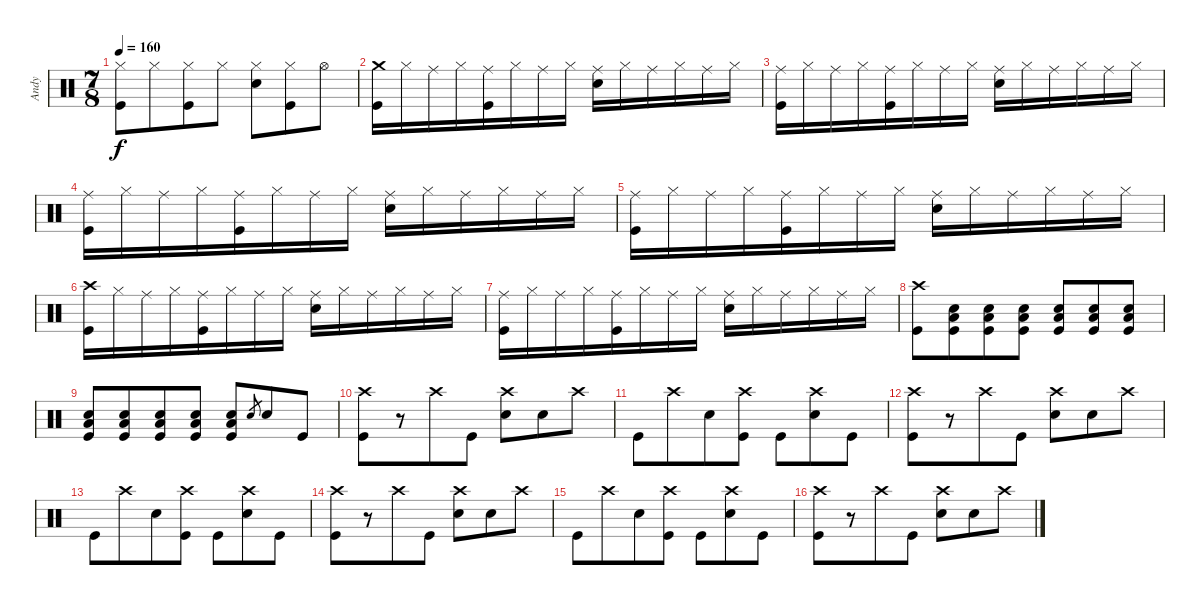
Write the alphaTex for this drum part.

\track ("Andy" "Andy") {instrument percussion}
\staff {score}
\articulation defaults
\ts (7 8)
\tempo 160
\clef neutral
\ks c
("Kick (hit)" "Hi-Hat (closed)").8{dy f} "Hi-Hat (closed)".8 ("Hi-Hat (closed)" "Kick (hit)").8 "Hi-Hat (closed)".8 ("Hi-Hat (closed)" "Snare (hit) 2").8 ("Kick (hit)" "Hi-Hat (closed)").8 "Hi-Hat (open)".8 |
("Kick (hit)" "Crash medium (hit)").16 "Hi-Hat (closed)".16 "Ride (middle)".16 "Hi-Hat (closed)".16 ("Ride (middle)" "Kick (hit)").16 "Hi-Hat (closed)".16 "Ride (middle)".16 "Hi-Hat (closed)".16 ("Ride (middle)" "Snare (hit) 2").16 "Hi-Hat (closed)".16 "Ride (middle)".16 "Hi-Hat (closed)".16 "Ride (middle)".16 "Hi-Hat (closed)".16 |
("Kick (hit)" "Ride (middle)").16 "Hi-Hat (closed)".16 "Ride (middle)".16 "Hi-Hat (closed)".16 ("Ride (middle)" "Kick (hit)").16 "Hi-Hat (closed)".16 "Ride (middle)".16 "Hi-Hat (closed)".16 ("Ride (middle)" "Snare (hit) 2").16 "Hi-Hat (closed)".16 "Ride (middle)".16 "Hi-Hat (closed)".16 "Ride (middle)".16 "Hi-Hat (closed)".16 |
("Kick (hit)" "Ride (middle)").16 "Hi-Hat (closed)".16 "Ride (middle)".16 "Hi-Hat (closed)".16 ("Ride (middle)" "Kick (hit)").16 "Hi-Hat (closed)".16 "Ride (middle)".16 "Hi-Hat (closed)".16 ("Ride (middle)" "Snare (hit) 2").16 "Hi-Hat (closed)".16 "Ride (middle)".16 "Hi-Hat (closed)".16 "Ride (middle)".16 "Hi-Hat (closed)".16 |
("Kick (hit)" "Ride (middle)").16 "Hi-Hat (closed)".16 "Ride (middle)".16 "Hi-Hat (closed)".16 ("Ride (middle)" "Kick (hit)").16 "Hi-Hat (closed)".16 "Ride (middle)".16 "Hi-Hat (closed)".16 ("Ride (middle)" "Snare (hit) 2").16 "Hi-Hat (closed)".16 "Ride (middle)".16 "Hi-Hat (closed)".16 "Ride (middle)".16 "Hi-Hat (closed)".16 |
("Kick (hit)" "Crash high (hit)").16 "Hi-Hat (closed)".16 "Ride (middle)".16 "Hi-Hat (closed)".16 ("Ride (middle)" "Kick (hit)").16 "Hi-Hat (closed)".16 "Ride (middle)".16 "Hi-Hat (closed)".16 ("Ride (middle)" "Snare (hit) 2").16 "Hi-Hat (closed)".16 "Ride (middle)".16 "Hi-Hat (closed)".16 "Ride (middle)".16 "Hi-Hat (closed)".16 |
("Kick (hit)" "Ride (middle)").16 "Hi-Hat (closed)".16 "Ride (middle)".16 "Hi-Hat (closed)".16 ("Ride (middle)" "Kick (hit)").16 "Hi-Hat (closed)".16 "Ride (middle)".16 "Hi-Hat (closed)".16 ("Ride (middle)" "Snare (hit) 2").16 "Hi-Hat (closed)".16 "Ride (middle)".16 "Hi-Hat (closed)".16 "Ride (middle)".16 "Hi-Hat (closed)".16 |
("Kick (hit)" "Crash high (hit)").8 ("Snare (hit) 2" "Low Floor Tom (hit)" "Kick (hit)").8 ("Kick (hit)" "Low Floor Tom (hit)" "Snare (hit) 2").8 ("Kick (hit)" "Low Floor Tom (hit)" "Snare (hit) 2").8 ("Kick (hit)" "Low Floor Tom (hit)" "Snare (hit) 2").8 ("Kick (hit)" "Low Floor Tom (hit)" "Snare (hit) 2").8 ("Kick (hit)" "Low Floor Tom (hit)" "Snare (hit) 2").8 |
("Kick (hit)" "Low Floor Tom (hit)" "Snare (hit) 2").8 ("Snare (hit) 2" "Low Floor Tom (hit)" "Kick (hit)").8 ("Kick (hit)" "Low Floor Tom (hit)" "Snare (hit) 2").8 ("Kick (hit)" "Low Floor Tom (hit)" "Snare (hit) 2").8 ("Kick (hit)" "Low Floor Tom (hit)" "Snare (hit) 2").8 "Snare (hit) 2".8{gr} "Snare (hit) 2".8 "Kick (hit)".8 |
("Kick (hit)" "Crash high (hit)").8 r.8 "Crash high (hit)".8 "Kick (hit)".8 ("Snare (hit) 2" "Crash high (hit)").8 "Snare (hit) 2".8 "Crash high (hit)".8 |
"Kick (hit)".8 "Crash high (hit)".8 "Snare (hit) 2".8 ("Kick (hit)" "Crash high (hit)").8 "Kick (hit)".8 ("Snare (hit) 2" "Crash high (hit)").8 "Kick (hit)".8 |
("Kick (hit)" "Crash high (hit)").8 r.8 "Crash high (hit)".8 "Kick (hit)".8 ("Snare (hit) 2" "Crash high (hit)").8 "Snare (hit) 2".8 "Crash high (hit)".8 |
"Kick (hit)".8 "Crash high (hit)".8 "Snare (hit) 2".8 ("Kick (hit)" "Crash high (hit)").8 "Kick (hit)".8 ("Snare (hit) 2" "Crash high (hit)").8 "Kick (hit)".8 |
("Kick (hit)" "Crash high (hit)").8 r.8 "Crash high (hit)".8 "Kick (hit)".8 ("Snare (hit) 2" "Crash high (hit)").8 "Snare (hit) 2".8 "Crash high (hit)".8 |
"Kick (hit)".8 "Crash high (hit)".8 "Snare (hit) 2".8 ("Kick (hit)" "Crash high (hit)").8 "Kick (hit)".8 ("Snare (hit) 2" "Crash high (hit)").8 "Kick (hit)".8 |
("Kick (hit)" "Crash high (hit)").8 r.8 "Crash high (hit)".8 "Kick (hit)".8 ("Snare (hit) 2" "Crash high (hit)").8 "Snare (hit) 2".8 "Crash high (hit)".8
